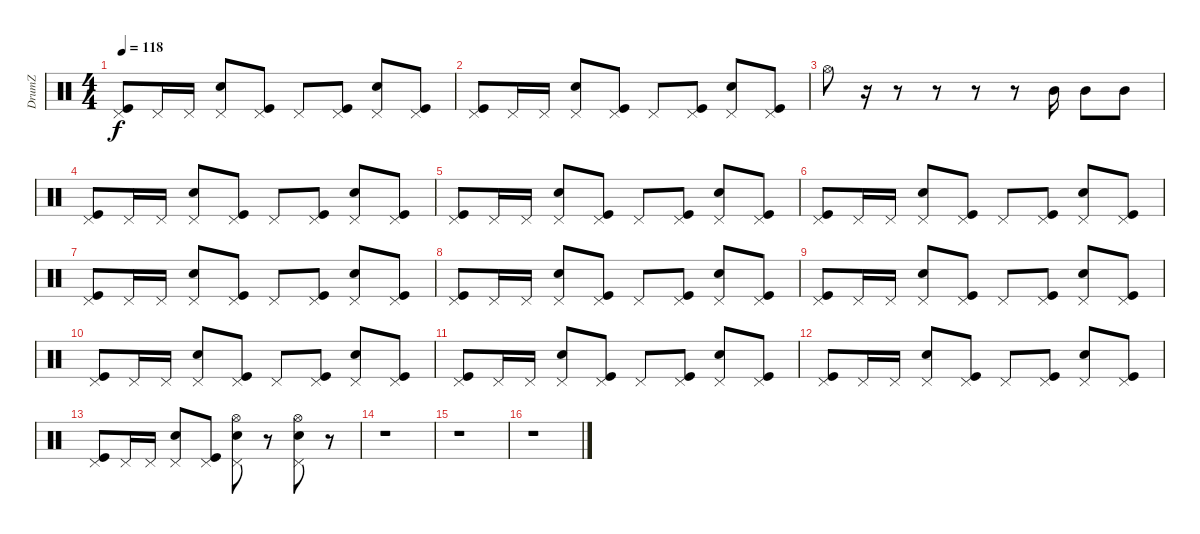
\track ("DrumZ" "DrumZ") {instrument percussion}
\staff {score}
\articulation defaults
\ts (4 4)
\tempo 118
\clef neutral
\ks c
("Pedal Hi-Hat (hit)" "Kick (hit)").8{dy f} "Pedal Hi-Hat (hit)".16 "Pedal Hi-Hat (hit)".16 ("Pedal Hi-Hat (hit)" "Snare (hit) 2").8 ("Pedal Hi-Hat (hit)" "Kick (hit)").8 "Pedal Hi-Hat (hit)".8 ("Pedal Hi-Hat (hit)" "Kick (hit)").8 ("Pedal Hi-Hat (hit)" "Snare (hit) 2").8 ("Pedal Hi-Hat (hit)" "Kick (hit)").8 |
("Pedal Hi-Hat (hit)" "Kick (hit)").8 "Pedal Hi-Hat (hit)".16 "Pedal Hi-Hat (hit)".16 ("Pedal Hi-Hat (hit)" "Snare (hit) 2").8 ("Pedal Hi-Hat (hit)" "Kick (hit)").8 "Pedal Hi-Hat (hit)".8 ("Pedal Hi-Hat (hit)" "Kick (hit)").8 ("Pedal Hi-Hat (hit)" "Snare (hit) 2").8 ("Pedal Hi-Hat (hit)" "Kick (hit)").8 |
"Hi-Hat (open)".8 r.16 r.8 r.8 r.8 r.8 "Mid Tom (hit)".16 "Mid Tom (hit)".8 "Mid Tom (hit)".8 |
("Pedal Hi-Hat (hit)" "Kick (hit)").8 "Pedal Hi-Hat (hit)".16 "Pedal Hi-Hat (hit)".16 ("Pedal Hi-Hat (hit)" "Snare (hit) 2").8 ("Pedal Hi-Hat (hit)" "Kick (hit)").8 "Pedal Hi-Hat (hit)".8 ("Pedal Hi-Hat (hit)" "Kick (hit)").8 ("Pedal Hi-Hat (hit)" "Snare (hit) 2").8 ("Pedal Hi-Hat (hit)" "Kick (hit)").8 |
("Pedal Hi-Hat (hit)" "Kick (hit)").8 "Pedal Hi-Hat (hit)".16 "Pedal Hi-Hat (hit)".16 ("Pedal Hi-Hat (hit)" "Snare (hit) 2").8 ("Pedal Hi-Hat (hit)" "Kick (hit)").8 "Pedal Hi-Hat (hit)".8 ("Pedal Hi-Hat (hit)" "Kick (hit)").8 ("Pedal Hi-Hat (hit)" "Snare (hit) 2").8 ("Pedal Hi-Hat (hit)" "Kick (hit)").8 |
("Pedal Hi-Hat (hit)" "Kick (hit)").8 "Pedal Hi-Hat (hit)".16 "Pedal Hi-Hat (hit)".16 ("Pedal Hi-Hat (hit)" "Snare (hit) 2").8 ("Pedal Hi-Hat (hit)" "Kick (hit)").8 "Pedal Hi-Hat (hit)".8 ("Pedal Hi-Hat (hit)" "Kick (hit)").8 ("Pedal Hi-Hat (hit)" "Snare (hit) 2").8 ("Pedal Hi-Hat (hit)" "Kick (hit)").8 |
("Pedal Hi-Hat (hit)" "Kick (hit)").8 "Pedal Hi-Hat (hit)".16 "Pedal Hi-Hat (hit)".16 ("Pedal Hi-Hat (hit)" "Snare (hit) 2").8 ("Pedal Hi-Hat (hit)" "Kick (hit)").8 "Pedal Hi-Hat (hit)".8 ("Pedal Hi-Hat (hit)" "Kick (hit)").8 ("Pedal Hi-Hat (hit)" "Snare (hit) 2").8 ("Pedal Hi-Hat (hit)" "Kick (hit)").8 |
("Pedal Hi-Hat (hit)" "Kick (hit)").8 "Pedal Hi-Hat (hit)".16 "Pedal Hi-Hat (hit)".16 ("Pedal Hi-Hat (hit)" "Snare (hit) 2").8 ("Pedal Hi-Hat (hit)" "Kick (hit)").8 "Pedal Hi-Hat (hit)".8 ("Pedal Hi-Hat (hit)" "Kick (hit)").8 ("Pedal Hi-Hat (hit)" "Snare (hit) 2").8 ("Pedal Hi-Hat (hit)" "Kick (hit)").8 |
("Pedal Hi-Hat (hit)" "Kick (hit)").8 "Pedal Hi-Hat (hit)".16 "Pedal Hi-Hat (hit)".16 ("Pedal Hi-Hat (hit)" "Snare (hit) 2").8 ("Pedal Hi-Hat (hit)" "Kick (hit)").8 "Pedal Hi-Hat (hit)".8 ("Pedal Hi-Hat (hit)" "Kick (hit)").8 ("Pedal Hi-Hat (hit)" "Snare (hit) 2").8 ("Pedal Hi-Hat (hit)" "Kick (hit)").8 |
("Pedal Hi-Hat (hit)" "Kick (hit)").8 "Pedal Hi-Hat (hit)".16 "Pedal Hi-Hat (hit)".16 ("Pedal Hi-Hat (hit)" "Snare (hit) 2").8 ("Pedal Hi-Hat (hit)" "Kick (hit)").8 "Pedal Hi-Hat (hit)".8 ("Pedal Hi-Hat (hit)" "Kick (hit)").8 ("Pedal Hi-Hat (hit)" "Snare (hit) 2").8 ("Pedal Hi-Hat (hit)" "Kick (hit)").8 |
("Pedal Hi-Hat (hit)" "Kick (hit)").8 "Pedal Hi-Hat (hit)".16 "Pedal Hi-Hat (hit)".16 ("Pedal Hi-Hat (hit)" "Snare (hit) 2").8 ("Pedal Hi-Hat (hit)" "Kick (hit)").8 "Pedal Hi-Hat (hit)".8 ("Pedal Hi-Hat (hit)" "Kick (hit)").8 ("Pedal Hi-Hat (hit)" "Snare (hit) 2").8 ("Pedal Hi-Hat (hit)" "Kick (hit)").8 |
("Pedal Hi-Hat (hit)" "Kick (hit)").8 "Pedal Hi-Hat (hit)".16 "Pedal Hi-Hat (hit)".16 ("Pedal Hi-Hat (hit)" "Snare (hit) 2").8 ("Pedal Hi-Hat (hit)" "Kick (hit)").8 "Pedal Hi-Hat (hit)".8 ("Pedal Hi-Hat (hit)" "Kick (hit)").8 ("Pedal Hi-Hat (hit)" "Snare (hit) 2").8 ("Pedal Hi-Hat (hit)" "Kick (hit)").8 |
("Pedal Hi-Hat (hit)" "Kick (hit)").8 "Pedal Hi-Hat (hit)".16 "Pedal Hi-Hat (hit)".16 ("Pedal Hi-Hat (hit)" "Snare (hit) 2").8 ("Pedal Hi-Hat (hit)" "Kick (hit)").8 ("Hi-Hat (open)" "Pedal Hi-Hat (hit)" "Snare (hit) 2").8 r.8 ("Hi-Hat (open)" "Pedal Hi-Hat (hit)" "Snare (hit) 2").8 r.8 |
r.1 |
r.1 |
r.1
